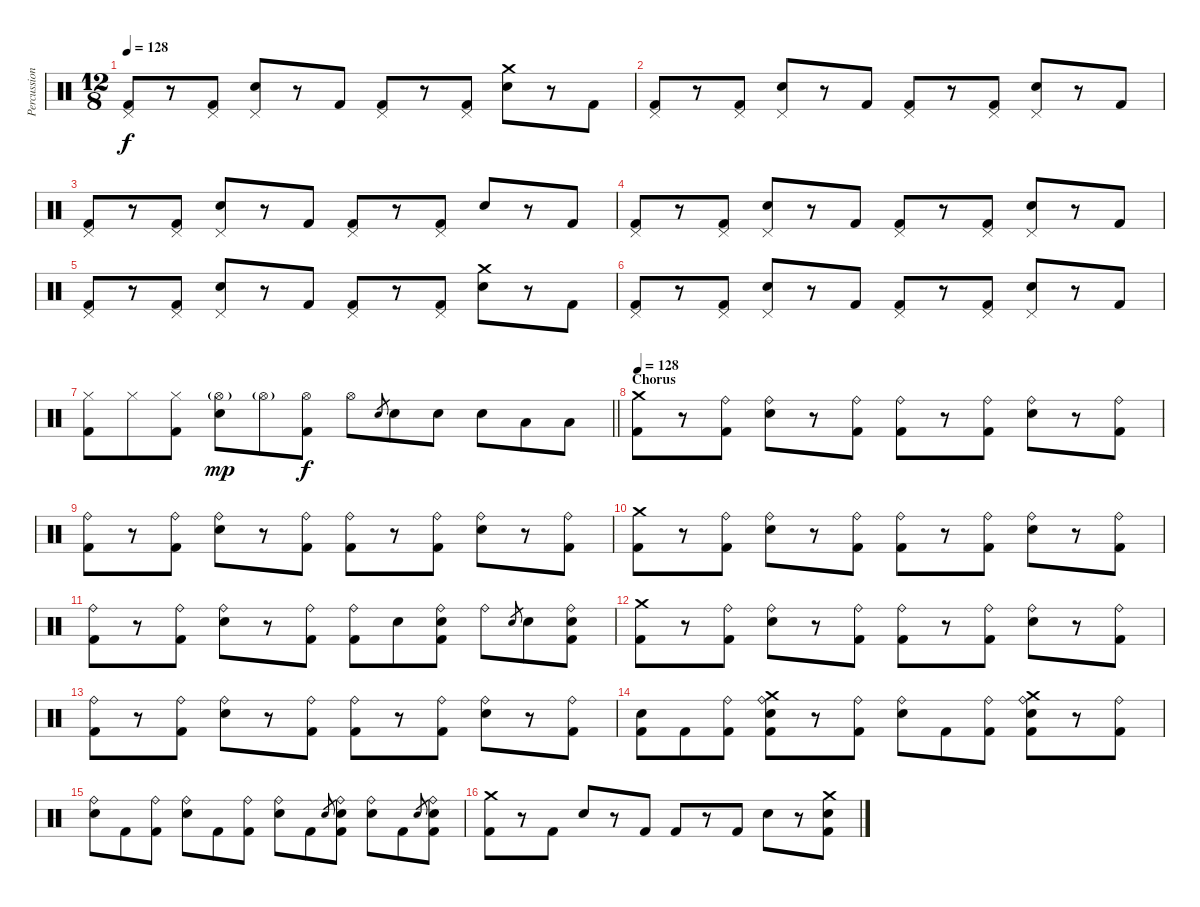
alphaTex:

\track ("Percussion" "Percussion") {instrument percussion}
\staff {score}
\articulation defaults
\ts (12 8)
\tempo 128
\clef neutral
\ks c
("Pedal Hi-Hat (hit)" "Kick (hit) 2").8{dy f} r.8 ("Pedal Hi-Hat (hit)" "Kick (hit) 2").8 ("Pedal Hi-Hat (hit)" "Snare (hit) 2").8 r.8 "Kick (hit) 2".8 ("Pedal Hi-Hat (hit)" "Kick (hit) 2").8 r.8 ("Pedal Hi-Hat (hit)" "Kick (hit) 2").8 ("Crash medium (hit)" "Snare (hit) 2").8 r.8 "Kick (hit) 2".8 |
("Pedal Hi-Hat (hit)" "Kick (hit) 2").8 r.8 ("Pedal Hi-Hat (hit)" "Kick (hit) 2").8 ("Pedal Hi-Hat (hit)" "Snare (hit) 2").8 r.8 "Kick (hit) 2".8 ("Pedal Hi-Hat (hit)" "Kick (hit) 2").8 r.8 ("Pedal Hi-Hat (hit)" "Kick (hit) 2").8 ("Pedal Hi-Hat (hit)" "Snare (hit) 2").8 r.8 "Kick (hit) 2".8 |
("Pedal Hi-Hat (hit)" "Kick (hit) 2").8 r.8 ("Pedal Hi-Hat (hit)" "Kick (hit) 2").8 ("Pedal Hi-Hat (hit)" "Snare (hit) 2").8 r.8 "Kick (hit) 2".8 ("Pedal Hi-Hat (hit)" "Kick (hit) 2").8 r.8 ("Pedal Hi-Hat (hit)" "Kick (hit) 2").8 "Snare (hit) 2".8 r.8 "Kick (hit) 2".8 |
("Pedal Hi-Hat (hit)" "Kick (hit) 2").8 r.8 ("Pedal Hi-Hat (hit)" "Kick (hit) 2").8 ("Pedal Hi-Hat (hit)" "Snare (hit) 2").8 r.8 "Kick (hit) 2".8 ("Pedal Hi-Hat (hit)" "Kick (hit) 2").8 r.8 ("Pedal Hi-Hat (hit)" "Kick (hit) 2").8 ("Pedal Hi-Hat (hit)" "Snare (hit) 2").8 r.8 "Kick (hit) 2".8 |
("Pedal Hi-Hat (hit)" "Kick (hit) 2").8 r.8 ("Pedal Hi-Hat (hit)" "Kick (hit) 2").8 ("Pedal Hi-Hat (hit)" "Snare (hit) 2").8 r.8 "Kick (hit) 2".8 ("Pedal Hi-Hat (hit)" "Kick (hit) 2").8 r.8 ("Pedal Hi-Hat (hit)" "Kick (hit) 2").8 ("Crash medium (hit)" "Snare (hit) 2").8 r.8 "Kick (hit) 2".8 |
("Pedal Hi-Hat (hit)" "Kick (hit) 2").8 r.8 ("Pedal Hi-Hat (hit)" "Kick (hit) 2").8 ("Pedal Hi-Hat (hit)" "Snare (hit) 2").8 r.8 "Kick (hit) 2".8 ("Pedal Hi-Hat (hit)" "Kick (hit) 2").8 r.8 ("Pedal Hi-Hat (hit)" "Kick (hit) 2").8 ("Pedal Hi-Hat (hit)" "Snare (hit) 2").8 r.8 "Kick (hit) 2".8 |
\barLineRight lightlight
("Hi-Hat (closed)" "Kick (hit) 2").8 "Hi-Hat (closed)".8 ("Hi-Hat (closed)" "Kick (hit) 2").8 ("Hi-Hat (open)"{g} "Snare (hit) 2").8{dy mp} "Hi-Hat (open)"{g}.8 ("Hi-Hat (open)" "Kick (hit) 2").8{dy f} "Hi-Hat (open)".8 "Snare (hit) 2".8{gr} "Snare (hit) 2".8 "Snare (hit) 2".8 "Snare (hit) 2".8 "Low Tom (hit)".8 "Low Floor Tom (hit)".8 |
\section ("" "Chorus")
\tempo 128
("Crash medium (hit)" "Kick (hit) 2").8 r.8 ("Ride (bell)" "Kick (hit) 2").8 ("Ride (bell)" "Snare (hit) 2").8 r.8 ("Ride (bell)" "Kick (hit) 2").8 ("Ride (bell)" "Kick (hit) 2").8 r.8 ("Ride (bell)" "Kick (hit) 2").8 ("Ride (bell)" "Snare (hit) 2").8 r.8 ("Ride (bell)" "Kick (hit) 2").8 |
("Ride (bell)" "Kick (hit) 2").8 r.8 ("Ride (bell)" "Kick (hit) 2").8 ("Ride (bell)" "Snare (hit) 2").8 r.8 ("Ride (bell)" "Kick (hit) 2").8 ("Ride (bell)" "Kick (hit) 2").8 r.8 ("Ride (bell)" "Kick (hit) 2").8 ("Ride (bell)" "Snare (hit) 2").8 r.8 ("Ride (bell)" "Kick (hit) 2").8 |
("Crash medium (hit)" "Kick (hit) 2").8 r.8 ("Ride (bell)" "Kick (hit) 2").8 ("Ride (bell)" "Snare (hit) 2").8 r.8 ("Ride (bell)" "Kick (hit) 2").8 ("Ride (bell)" "Kick (hit) 2").8 r.8 ("Ride (bell)" "Kick (hit) 2").8 ("Ride (bell)" "Snare (hit) 2").8 r.8 ("Ride (bell)" "Kick (hit) 2").8 |
("Ride (bell)" "Kick (hit) 2").8 r.8 ("Ride (bell)" "Kick (hit) 2").8 ("Ride (bell)" "Snare (hit) 2").8 r.8 ("Ride (bell)" "Kick (hit) 2").8 ("Ride (bell)" "Kick (hit) 2").8 "Snare (hit) 2".8 ("Ride (bell)" "Snare (hit) 2" "Kick (hit) 2").8 "Ride (bell)".8 "Snare (hit) 2".8{gr} "Snare (hit) 2".8 ("Ride (bell)" "Snare (hit) 2" "Kick (hit) 2").8 |
("Crash medium (hit)" "Kick (hit) 2").8 r.8 ("Ride (bell)" "Kick (hit) 2").8 ("Ride (bell)" "Snare (hit) 2").8 r.8 ("Ride (bell)" "Kick (hit) 2").8 ("Ride (bell)" "Kick (hit) 2").8 r.8 ("Ride (bell)" "Kick (hit) 2").8 ("Ride (bell)" "Snare (hit) 2").8 r.8 ("Ride (bell)" "Kick (hit) 2").8 |
("Ride (bell)" "Kick (hit) 2").8 r.8 ("Ride (bell)" "Kick (hit) 2").8 ("Ride (bell)" "Snare (hit) 2").8 r.8 ("Ride (bell)" "Kick (hit) 2").8 ("Ride (bell)" "Kick (hit) 2").8 r.8 ("Ride (bell)" "Kick (hit) 2").8 ("Ride (bell)" "Snare (hit) 2").8 r.8 ("Ride (bell)" "Kick (hit) 2").8 |
("Snare (hit) 2" "Kick (hit) 2").8 "Kick (hit) 2".8 ("Ride (bell)" "Kick (hit) 2").8 ("Ride (bell)" "Crash medium (hit)" "Snare (hit) 2" "Kick (hit) 2").8 r.8 ("Ride (bell)" "Kick (hit) 2").8 ("Ride (bell)" "Snare (hit) 2").8 "Kick (hit) 2".8 ("Ride (bell)" "Kick (hit) 2").8 ("Ride (bell)" "Crash medium (hit)" "Snare (hit) 2" "Kick (hit) 2").8 r.8 ("Ride (bell)" "Kick (hit) 2").8 |
("Ride (bell)" "Snare (hit) 2").8 "Kick (hit) 2".8 ("Ride (bell)" "Kick (hit) 2").8 ("Ride (bell)" "Snare (hit) 2").8 "Kick (hit) 2".8 ("Ride (bell)" "Kick (hit) 2").8 ("Ride (bell)" "Snare (hit) 2").8 "Kick (hit) 2".8 "Snare (hit) 2".8{gr} ("Ride (bell)" "Snare (hit) 2" "Kick (hit) 2").8 ("Ride (bell)" "Snare (hit) 2").8 "Kick (hit) 2".8 "Snare (hit) 2".8{gr} ("Ride (bell)" "Snare (hit) 2" "Kick (hit) 2").8 |
("Crash medium (hit)" "Kick (hit) 2").8 r.8 "Kick (hit) 2".8 "Snare (hit) 2".8 r.8 "Kick (hit) 2".8 "Kick (hit) 2".8 r.8 "Kick (hit) 2".8 "Snare (hit) 2".8 r.8 ("Crash medium (hit)" "Snare (hit) 2" "Kick (hit) 2").8
